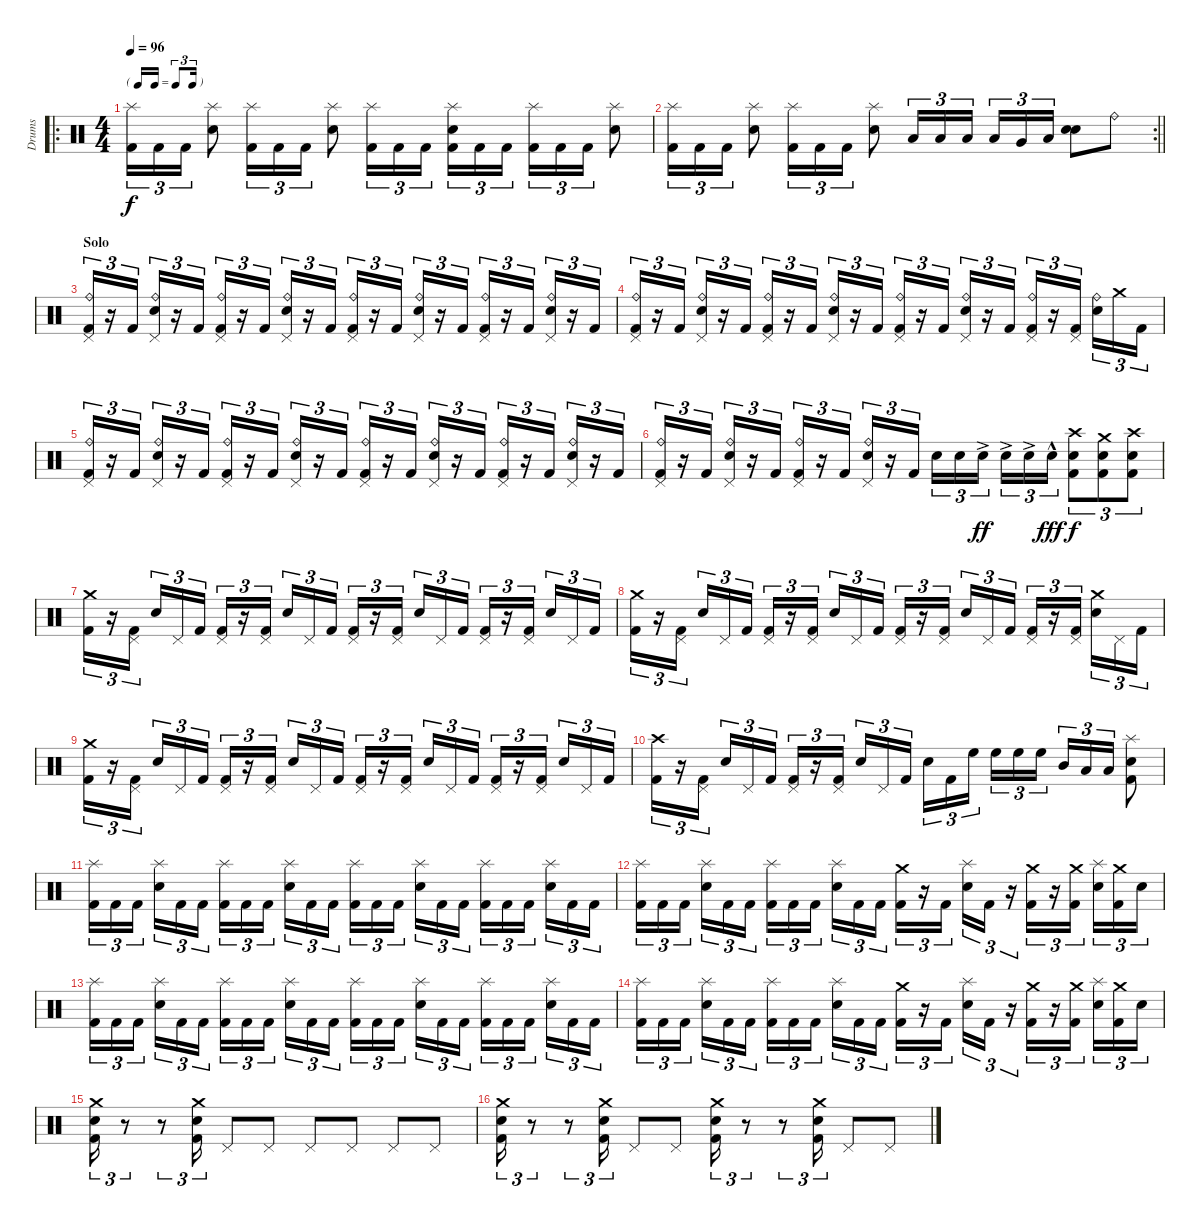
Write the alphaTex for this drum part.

\track ("Drums" "Drums") {instrument percussion}
\staff {score}
\articulation defaults
\ro
\ts (4 4)
\tf triplet16th
\tempo 96
\clef neutral
\ks c
("Splash (hit)" "Kick (hit) 2").16{tu (3 2) dy f} "Kick (hit) 2".16{tu (3 2)} "Kick (hit) 2".16{tu (3 2)} ("Splash (hit)" "Snare (hit) 2").8 ("Splash (hit)" "Kick (hit) 2").16{tu (3 2)} "Kick (hit) 2".16{tu (3 2)} "Kick (hit) 2".16{tu (3 2)} ("Splash (hit)" "Snare (hit) 2").8 ("Splash (hit)" "Kick (hit) 2").16{tu (3 2)} "Kick (hit) 2".16{tu (3 2)} "Kick (hit) 2".16{tu (3 2) beam splitsecondary} ("Splash (hit)" "Snare (hit) 2" "Kick (hit) 2").16{tu (3 2)} "Kick (hit) 2".16{tu (3 2)} "Kick (hit) 2".16{tu (3 2)} ("Splash (hit)" "Kick (hit) 2").16{tu (3 2)} "Kick (hit) 2".16{tu (3 2)} "Kick (hit) 2".16{tu (3 2)} ("Splash (hit)" "Snare (hit) 2").8 |
\rc 2
\barLineRight lightlight
("Splash (hit)" "Kick (hit) 2").16{tu (3 2)} "Kick (hit) 2".16{tu (3 2)} "Kick (hit) 2".16{tu (3 2)} ("Splash (hit)" "Snare (hit) 2").8 ("Splash (hit)" "Kick (hit) 2").16{tu (3 2)} "Kick (hit) 2".16{tu (3 2)} "Kick (hit) 2".16{tu (3 2)} ("Splash (hit)" "Snare (hit) 2").8 "Low Tom (hit)".16{tu (3 2)} "Low Tom (hit)".16{tu (3 2)} "Low Floor Tom (hit)".16{tu (3 2) beam splitsecondary} "Low Tom (hit)".16{tu (3 2)} "Very Low Tom (hit)".16{tu (3 2)} "Low Floor Tom (hit)".16{tu (3 2)} ("Electric Snare (hit)" "Snare (hit) 2").8 "Ride (bell)".8 |
\section ("" "Solo")
("Ride (bell)" "Pedal Hi-Hat (hit)" "Kick (hit) 2").16{tu (3 2)} r.16{tu (3 2)} "Kick (hit) 2".16{tu (3 2)} ("Ride (bell)" "Pedal Hi-Hat (hit)" "Snare (hit) 2").16{tu (3 2)} r.16{tu (3 2)} "Kick (hit) 2".16{tu (3 2)} ("Ride (bell)" "Pedal Hi-Hat (hit)" "Kick (hit) 2").16{tu (3 2)} r.16{tu (3 2)} "Kick (hit) 2".16{tu (3 2)} ("Ride (bell)" "Pedal Hi-Hat (hit)" "Snare (hit) 2").16{tu (3 2)} r.16{tu (3 2)} "Kick (hit) 2".16{tu (3 2)} ("Ride (bell)" "Pedal Hi-Hat (hit)" "Kick (hit) 2").16{tu (3 2)} r.16{tu (3 2)} "Kick (hit) 2".16{tu (3 2)} ("Ride (bell)" "Pedal Hi-Hat (hit)" "Snare (hit) 2").16{tu (3 2)} r.16{tu (3 2)} "Kick (hit) 2".16{tu (3 2)} ("Ride (bell)" "Pedal Hi-Hat (hit)" "Kick (hit) 2").16{tu (3 2)} r.16{tu (3 2)} "Kick (hit) 2".16{tu (3 2)} ("Ride (bell)" "Pedal Hi-Hat (hit)" "Snare (hit) 2").16{tu (3 2)} r.16{tu (3 2)} "Kick (hit) 2".16{tu (3 2)} |
("Ride (bell)" "Pedal Hi-Hat (hit)" "Kick (hit) 2").16{tu (3 2)} r.16{tu (3 2)} "Kick (hit) 2".16{tu (3 2)} ("Ride (bell)" "Pedal Hi-Hat (hit)" "Snare (hit) 2").16{tu (3 2)} r.16{tu (3 2)} "Kick (hit) 2".16{tu (3 2)} ("Ride (bell)" "Pedal Hi-Hat (hit)" "Kick (hit) 2").16{tu (3 2)} r.16{tu (3 2)} "Kick (hit) 2".16{tu (3 2)} ("Ride (bell)" "Pedal Hi-Hat (hit)" "Snare (hit) 2").16{tu (3 2)} r.16{tu (3 2)} "Kick (hit) 2".16{tu (3 2)} ("Ride (bell)" "Pedal Hi-Hat (hit)" "Kick (hit) 2").16{tu (3 2)} r.16{tu (3 2)} "Kick (hit) 2".16{tu (3 2)} ("Ride (bell)" "Pedal Hi-Hat (hit)" "Snare (hit) 2").16{tu (3 2)} r.16{tu (3 2)} "Kick (hit) 2".16{tu (3 2)} ("Ride (bell)" "Pedal Hi-Hat (hit)" "Kick (hit) 2").16{tu (3 2)} r.16{tu (3 2)} ("Pedal Hi-Hat (hit)" "Kick (hit) 2").16{tu (3 2) beam splitsecondary} ("Ride (bell)" "Snare (hit) 2").16{tu (3 2)} "Crash medium (hit)".16{tu (3 2)} "Kick (hit) 2".16{tu (3 2)} |
("Ride (bell)" "Pedal Hi-Hat (hit)" "Kick (hit) 2").16{tu (3 2)} r.16{tu (3 2)} "Kick (hit) 2".16{tu (3 2)} ("Ride (bell)" "Pedal Hi-Hat (hit)" "Snare (hit) 2").16{tu (3 2)} r.16{tu (3 2)} "Kick (hit) 2".16{tu (3 2)} ("Ride (bell)" "Pedal Hi-Hat (hit)" "Kick (hit) 2").16{tu (3 2)} r.16{tu (3 2)} "Kick (hit) 2".16{tu (3 2)} ("Ride (bell)" "Pedal Hi-Hat (hit)" "Snare (hit) 2").16{tu (3 2)} r.16{tu (3 2)} "Kick (hit) 2".16{tu (3 2)} ("Ride (bell)" "Pedal Hi-Hat (hit)" "Kick (hit) 2").16{tu (3 2)} r.16{tu (3 2)} "Kick (hit) 2".16{tu (3 2)} ("Ride (bell)" "Pedal Hi-Hat (hit)" "Snare (hit) 2").16{tu (3 2)} r.16{tu (3 2)} "Kick (hit) 2".16{tu (3 2)} ("Ride (bell)" "Pedal Hi-Hat (hit)" "Kick (hit) 2").16{tu (3 2)} r.16{tu (3 2)} "Kick (hit) 2".16{tu (3 2)} ("Ride (bell)" "Pedal Hi-Hat (hit)" "Snare (hit) 2").16{tu (3 2)} r.16{tu (3 2)} "Kick (hit) 2".16{tu (3 2)} |
("Ride (bell)" "Pedal Hi-Hat (hit)" "Kick (hit) 2").16{tu (3 2)} r.16{tu (3 2)} "Kick (hit) 2".16{tu (3 2)} ("Ride (bell)" "Pedal Hi-Hat (hit)" "Snare (hit) 2").16{tu (3 2)} r.16{tu (3 2)} "Kick (hit) 2".16{tu (3 2)} ("Ride (bell)" "Pedal Hi-Hat (hit)" "Kick (hit) 2").16{tu (3 2)} r.16{tu (3 2)} "Kick (hit) 2".16{tu (3 2)} ("Ride (bell)" "Pedal Hi-Hat (hit)" "Snare (hit) 2").16{tu (3 2)} r.16{tu (3 2)} "Kick (hit) 2".16{tu (3 2)} "Electric Snare (hit)".16{tu (3 2)} "Electric Snare (hit)".16{tu (3 2)} "Electric Snare (hit)"{ac}.16{tu (3 2) dy ff beam splitsecondary} "Electric Snare (hit)"{ac}.16{tu (3 2)} "Electric Snare (hit)"{ac}.16{tu (3 2)} "Electric Snare (hit)"{hac}.16{tu (3 2) dy fff} ("Crash high (hit)" "Snare (hit) 2" "Kick (hit) 2").8{tu (3 2) dy f} ("Crash medium (hit)" "Snare (hit) 2" "Kick (hit) 2").8{tu (3 2)} ("Crash high (hit)" "Snare (hit) 2" "Kick (hit) 2").8{tu (3 2)} |
("Crash medium (hit)" "Kick (hit) 2").16{tu (3 2)} r.16{tu (3 2)} ("Pedal Hi-Hat (hit)" "Kick (hit) 2").16{tu (3 2) beam splitsecondary} "Snare (hit) 2".16{tu (3 2)} "Pedal Hi-Hat (hit)".16{tu (3 2)} "Kick (hit) 2".16{tu (3 2)} ("Pedal Hi-Hat (hit)" "Kick (hit) 2").16{tu (3 2)} r.16{tu (3 2)} ("Pedal Hi-Hat (hit)" "Kick (hit) 2").16{tu (3 2) beam splitsecondary} "Snare (hit) 2".16{tu (3 2)} "Pedal Hi-Hat (hit)".16{tu (3 2)} "Kick (hit) 2".16{tu (3 2)} ("Pedal Hi-Hat (hit)" "Kick (hit) 2").16{tu (3 2)} r.16{tu (3 2)} ("Pedal Hi-Hat (hit)" "Kick (hit) 2").16{tu (3 2) beam splitsecondary} "Snare (hit) 2".16{tu (3 2)} "Pedal Hi-Hat (hit)".16{tu (3 2)} "Kick (hit) 2".16{tu (3 2)} ("Pedal Hi-Hat (hit)" "Kick (hit) 2").16{tu (3 2)} r.16{tu (3 2)} ("Pedal Hi-Hat (hit)" "Kick (hit) 2").16{tu (3 2) beam splitsecondary} "Snare (hit) 2".16{tu (3 2)} "Pedal Hi-Hat (hit)".16{tu (3 2)} "Kick (hit) 2".16{tu (3 2)} |
("Crash medium (hit)" "Kick (hit) 2").16{tu (3 2)} r.16{tu (3 2)} ("Pedal Hi-Hat (hit)" "Kick (hit) 2").16{tu (3 2) beam splitsecondary} "Snare (hit) 2".16{tu (3 2)} "Pedal Hi-Hat (hit)".16{tu (3 2)} "Kick (hit) 2".16{tu (3 2)} ("Pedal Hi-Hat (hit)" "Kick (hit) 2").16{tu (3 2)} r.16{tu (3 2)} ("Pedal Hi-Hat (hit)" "Kick (hit) 2").16{tu (3 2) beam splitsecondary} "Snare (hit) 2".16{tu (3 2)} "Pedal Hi-Hat (hit)".16{tu (3 2)} "Kick (hit) 2".16{tu (3 2)} ("Pedal Hi-Hat (hit)" "Kick (hit) 2").16{tu (3 2)} r.16{tu (3 2)} ("Pedal Hi-Hat (hit)" "Kick (hit) 2").16{tu (3 2) beam splitsecondary} "Snare (hit) 2".16{tu (3 2)} "Pedal Hi-Hat (hit)".16{tu (3 2)} "Kick (hit) 2".16{tu (3 2)} ("Pedal Hi-Hat (hit)" "Kick (hit) 2").16{tu (3 2)} r.16{tu (3 2)} ("Pedal Hi-Hat (hit)" "Kick (hit) 2").16{tu (3 2) beam splitsecondary} ("Crash medium (hit)" "Snare (hit) 2").16{tu (3 2)} "Pedal Hi-Hat (hit)".16{tu (3 2)} "Kick (hit) 2".16{tu (3 2)} |
("Crash medium (hit)" "Kick (hit) 2").16{tu (3 2)} r.16{tu (3 2)} ("Pedal Hi-Hat (hit)" "Kick (hit) 2").16{tu (3 2) beam splitsecondary} "Snare (hit) 2".16{tu (3 2)} "Pedal Hi-Hat (hit)".16{tu (3 2)} "Kick (hit) 2".16{tu (3 2)} ("Pedal Hi-Hat (hit)" "Kick (hit) 2").16{tu (3 2)} r.16{tu (3 2)} ("Pedal Hi-Hat (hit)" "Kick (hit) 2").16{tu (3 2) beam splitsecondary} "Snare (hit) 2".16{tu (3 2)} "Pedal Hi-Hat (hit)".16{tu (3 2)} "Kick (hit) 2".16{tu (3 2)} ("Pedal Hi-Hat (hit)" "Kick (hit) 2").16{tu (3 2)} r.16{tu (3 2)} ("Pedal Hi-Hat (hit)" "Kick (hit) 2").16{tu (3 2) beam splitsecondary} "Snare (hit) 2".16{tu (3 2)} "Pedal Hi-Hat (hit)".16{tu (3 2)} "Kick (hit) 2".16{tu (3 2)} ("Pedal Hi-Hat (hit)" "Kick (hit) 2").16{tu (3 2)} r.16{tu (3 2)} ("Pedal Hi-Hat (hit)" "Kick (hit) 2").16{tu (3 2) beam splitsecondary} "Snare (hit) 2".16{tu (3 2)} "Pedal Hi-Hat (hit)".16{tu (3 2)} "Kick (hit) 2".16{tu (3 2)} |
("Crash high (hit)" "Kick (hit) 2").16{tu (3 2)} r.16{tu (3 2)} ("Pedal Hi-Hat (hit)" "Kick (hit) 2").16{tu (3 2) beam splitsecondary} "Snare (hit) 2".16{tu (3 2)} "Pedal Hi-Hat (hit)".16{tu (3 2)} "Kick (hit) 2".16{tu (3 2)} ("Pedal Hi-Hat (hit)" "Kick (hit) 2").16{tu (3 2)} r.16{tu (3 2)} ("Pedal Hi-Hat (hit)" "Kick (hit) 2").16{tu (3 2) beam splitsecondary} "Snare (hit) 2".16{tu (3 2)} "Pedal Hi-Hat (hit)".16{tu (3 2)} "Kick (hit) 2".16{tu (3 2)} "Snare (hit) 2".16{tu (3 2)} "Kick (hit) 2".16{tu (3 2)} "High Floor Tom (hit)".16{tu (3 2) beam splitsecondary} "High Floor Tom (hit)".16{tu (3 2)} "High Floor Tom (hit)".16{tu (3 2)} "High Floor Tom (hit)".16{tu (3 2)} "Mid Tom (hit)".16{tu (3 2)} "Low Tom (hit)".16{tu (3 2)} "Low Floor Tom (hit)".16{tu (3 2)} ("Splash (hit)" "Snare (hit) 2" "Kick (hit) 2").8 |
("Splash (hit)" "Kick (hit) 2").16{tu (3 2)} "Kick (hit) 2".16{tu (3 2)} "Kick (hit) 2".16{tu (3 2) beam splitsecondary} ("Splash (hit)" "Snare (hit) 2").16{tu (3 2)} "Kick (hit) 2".16{tu (3 2)} "Kick (hit) 2".16{tu (3 2)} ("Splash (hit)" "Kick (hit) 2").16{tu (3 2)} "Kick (hit) 2".16{tu (3 2)} "Kick (hit) 2".16{tu (3 2) beam splitsecondary} ("Splash (hit)" "Snare (hit) 2").16{tu (3 2)} "Kick (hit) 2".16{tu (3 2)} "Kick (hit) 2".16{tu (3 2)} ("Splash (hit)" "Kick (hit) 2").16{tu (3 2)} "Kick (hit) 2".16{tu (3 2)} "Kick (hit) 2".16{tu (3 2) beam splitsecondary} ("Splash (hit)" "Snare (hit) 2").16{tu (3 2)} "Kick (hit) 2".16{tu (3 2)} "Kick (hit) 2".16{tu (3 2)} ("Splash (hit)" "Kick (hit) 2").16{tu (3 2)} "Kick (hit) 2".16{tu (3 2)} "Kick (hit) 2".16{tu (3 2) beam splitsecondary} ("Splash (hit)" "Snare (hit) 2").16{tu (3 2)} "Kick (hit) 2".16{tu (3 2)} "Kick (hit) 2".16{tu (3 2)} |
("Splash (hit)" "Kick (hit) 2").16{tu (3 2)} "Kick (hit) 2".16{tu (3 2)} "Kick (hit) 2".16{tu (3 2) beam splitsecondary} ("Splash (hit)" "Snare (hit) 2").16{tu (3 2)} "Kick (hit) 2".16{tu (3 2)} "Kick (hit) 2".16{tu (3 2)} ("Splash (hit)" "Kick (hit) 2").16{tu (3 2)} "Kick (hit) 2".16{tu (3 2)} "Kick (hit) 2".16{tu (3 2) beam splitsecondary} ("Splash (hit)" "Snare (hit) 2").16{tu (3 2)} "Kick (hit) 2".16{tu (3 2)} "Kick (hit) 2".16{tu (3 2)} ("Crash medium (hit)" "Kick (hit) 2").16{tu (3 2)} r.16{tu (3 2)} "Kick (hit) 2".16{tu (3 2) beam splitsecondary} ("Splash (hit)" "Snare (hit) 2").16{tu (3 2)} "Kick (hit) 2".16{tu (3 2)} r.16{tu (3 2)} ("Crash medium (hit)" "Kick (hit) 2").16{tu (3 2)} r.16{tu (3 2)} ("Crash medium (hit)" "Kick (hit) 2").16{tu (3 2) beam splitsecondary} ("Splash (hit)" "Snare (hit) 2").16{tu (3 2)} ("Crash medium (hit)" "Kick (hit) 2").16{tu (3 2)} "Snare (hit) 2".16{tu (3 2)} |
("Splash (hit)" "Kick (hit) 2").16{tu (3 2)} "Kick (hit) 2".16{tu (3 2)} "Kick (hit) 2".16{tu (3 2) beam splitsecondary} ("Splash (hit)" "Snare (hit) 2").16{tu (3 2)} "Kick (hit) 2".16{tu (3 2)} "Kick (hit) 2".16{tu (3 2)} ("Splash (hit)" "Kick (hit) 2").16{tu (3 2)} "Kick (hit) 2".16{tu (3 2)} "Kick (hit) 2".16{tu (3 2) beam splitsecondary} ("Splash (hit)" "Snare (hit) 2").16{tu (3 2)} "Kick (hit) 2".16{tu (3 2)} "Kick (hit) 2".16{tu (3 2)} ("Splash (hit)" "Kick (hit) 2").16{tu (3 2)} "Kick (hit) 2".16{tu (3 2)} "Kick (hit) 2".16{tu (3 2) beam splitsecondary} ("Splash (hit)" "Snare (hit) 2").16{tu (3 2)} "Kick (hit) 2".16{tu (3 2)} "Kick (hit) 2".16{tu (3 2)} ("Splash (hit)" "Kick (hit) 2").16{tu (3 2)} "Kick (hit) 2".16{tu (3 2)} "Kick (hit) 2".16{tu (3 2) beam splitsecondary} ("Splash (hit)" "Snare (hit) 2").16{tu (3 2)} "Kick (hit) 2".16{tu (3 2)} "Kick (hit) 2".16{tu (3 2)} |
("Splash (hit)" "Kick (hit) 2").16{tu (3 2)} "Kick (hit) 2".16{tu (3 2)} "Kick (hit) 2".16{tu (3 2) beam splitsecondary} ("Splash (hit)" "Snare (hit) 2").16{tu (3 2)} "Kick (hit) 2".16{tu (3 2)} "Kick (hit) 2".16{tu (3 2)} ("Splash (hit)" "Kick (hit) 2").16{tu (3 2)} "Kick (hit) 2".16{tu (3 2)} "Kick (hit) 2".16{tu (3 2) beam splitsecondary} ("Splash (hit)" "Snare (hit) 2").16{tu (3 2)} "Kick (hit) 2".16{tu (3 2)} "Kick (hit) 2".16{tu (3 2)} ("Crash medium (hit)" "Kick (hit) 2").16{tu (3 2)} r.16{tu (3 2)} "Kick (hit) 2".16{tu (3 2) beam splitsecondary} ("Splash (hit)" "Snare (hit) 2").16{tu (3 2)} "Kick (hit) 2".16{tu (3 2)} r.16{tu (3 2)} ("Crash medium (hit)" "Kick (hit) 2").16{tu (3 2)} r.16{tu (3 2)} ("Crash medium (hit)" "Kick (hit) 2").16{tu (3 2) beam splitsecondary} ("Splash (hit)" "Snare (hit) 2").16{tu (3 2)} ("Crash medium (hit)" "Kick (hit) 2").16{tu (3 2)} "Snare (hit) 2".16{tu (3 2)} |
("Crash medium (hit)" "Snare (hit) 2" "Kick (hit) 2").16{tu (3 2)} r.8{tu (3 2)} r.8{tu (3 2)} ("Crash medium (hit)" "Snare (hit) 2" "Kick (hit) 2").16{tu (3 2)} "Pedal Hi-Hat (hit)".8 "Pedal Hi-Hat (hit)".8 "Pedal Hi-Hat (hit)".8 "Pedal Hi-Hat (hit)".8 "Pedal Hi-Hat (hit)".8 "Pedal Hi-Hat (hit)".8 |
("Crash medium (hit)" "Snare (hit) 2" "Kick (hit) 2").16{tu (3 2)} r.8{tu (3 2)} r.8{tu (3 2)} ("Crash medium (hit)" "Snare (hit) 2" "Kick (hit) 2").16{tu (3 2)} "Pedal Hi-Hat (hit)".8 "Pedal Hi-Hat (hit)".8 ("Crash medium (hit)" "Snare (hit) 2" "Kick (hit) 2").16{tu (3 2)} r.8{tu (3 2)} r.8{tu (3 2)} ("Crash medium (hit)" "Snare (hit) 2" "Kick (hit) 2").16{tu (3 2)} "Pedal Hi-Hat (hit)".8 "Pedal Hi-Hat (hit)".8
